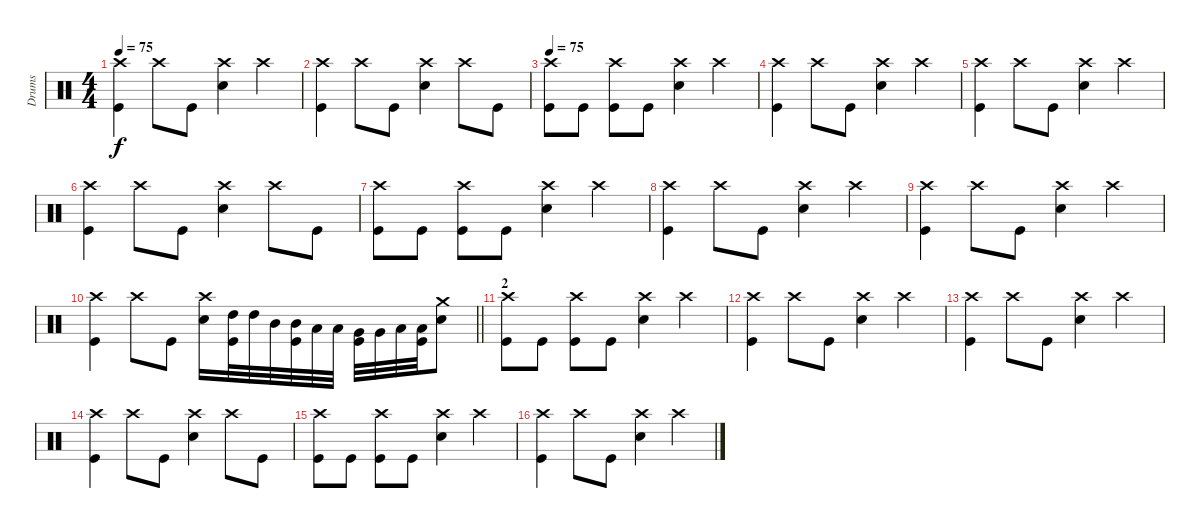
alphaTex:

\track ("Drums" "Drums") {instrument percussion}
\staff {score}
\articulation defaults
\ts (4 4)
\tempo 75
\clef neutral
\ks c
("Crash high (hit)" "Kick (hit)").4{dy f} "Crash high (hit)".8 "Kick (hit)".8 ("Crash high (hit)" "Snare (hit) 2").4 "Crash high (hit)".4 |
("Crash high (hit)" "Kick (hit)").4 "Crash high (hit)".8 "Kick (hit)".8 ("Crash high (hit)" "Snare (hit) 2").4 "Crash high (hit)".8 "Kick (hit)".8 |
\tempo 75
("Crash high (hit)" "Kick (hit)").8 "Kick (hit)".8 ("Crash high (hit)" "Kick (hit)").8 "Kick (hit)".8 ("Crash high (hit)" "Snare (hit) 2").4 "Crash high (hit)".4 |
("Crash high (hit)" "Kick (hit)").4 "Crash high (hit)".8 "Kick (hit)".8 ("Crash high (hit)" "Snare (hit) 2").4 "Crash high (hit)".4 |
("Crash high (hit)" "Kick (hit)").4 "Crash high (hit)".8 "Kick (hit)".8 ("Crash high (hit)" "Snare (hit) 2").4 "Crash high (hit)".4 |
("Crash high (hit)" "Kick (hit)").4 "Crash high (hit)".8 "Kick (hit)".8 ("Crash high (hit)" "Snare (hit) 2").4 "Crash high (hit)".8 "Kick (hit)".8 |
("Crash high (hit)" "Kick (hit)").8 "Kick (hit)".8 ("Crash high (hit)" "Kick (hit)").8 "Kick (hit)".8 ("Crash high (hit)" "Snare (hit) 2").4 "Crash high (hit)".4 |
("Crash high (hit)" "Kick (hit)").4 "Crash high (hit)".8 "Kick (hit)".8 ("Crash high (hit)" "Snare (hit) 2").4 "Crash high (hit)".4 |
("Crash high (hit)" "Kick (hit)").4 "Crash high (hit)".8 "Kick (hit)".8 ("Crash high (hit)" "Snare (hit) 2").4 "Crash high (hit)".4 |
\barLineRight lightlight
("Crash high (hit)" "Kick (hit)").4 "Crash high (hit)".8 "Kick (hit)".8 ("Crash high (hit)" "Snare (hit) 2").16 ("High Tom (hit)" "Kick (hit)").32 "High Tom (hit)".32 "Mid Tom (hit)".32 ("Mid Tom (hit)" "Kick (hit)").32 "Low Tom (hit)".32 "Low Tom (hit)".32 ("Very Low Tom (hit)" "Kick (hit)").32 "Very Low Tom (hit)".32 "Low Floor Tom (hit)".32 ("Low Floor Tom (hit)" "Kick (hit)").32 ("Crash medium (hit)" "Snare (hit) 2").8 |
\section ("" "2")
("Crash high (hit)" "Kick (hit)").8 "Kick (hit)".8 ("Crash high (hit)" "Kick (hit)").8 "Kick (hit)".8 ("Crash high (hit)" "Snare (hit) 2").4 "Crash high (hit)".4 |
("Crash high (hit)" "Kick (hit)").4 "Crash high (hit)".8 "Kick (hit)".8 ("Crash high (hit)" "Snare (hit) 2").4 "Crash high (hit)".4 |
("Crash high (hit)" "Kick (hit)").4 "Crash high (hit)".8 "Kick (hit)".8 ("Crash high (hit)" "Snare (hit) 2").4 "Crash high (hit)".4 |
("Crash high (hit)" "Kick (hit)").4 "Crash high (hit)".8 "Kick (hit)".8 ("Crash high (hit)" "Snare (hit) 2").4 "Crash high (hit)".8 "Kick (hit)".8 |
("Crash high (hit)" "Kick (hit)").8 "Kick (hit)".8 ("Crash high (hit)" "Kick (hit)").8 "Kick (hit)".8 ("Crash high (hit)" "Snare (hit) 2").4 "Crash high (hit)".4 |
("Crash high (hit)" "Kick (hit)").4 "Crash high (hit)".8 "Kick (hit)".8 ("Crash high (hit)" "Snare (hit) 2").4 "Crash high (hit)".4
